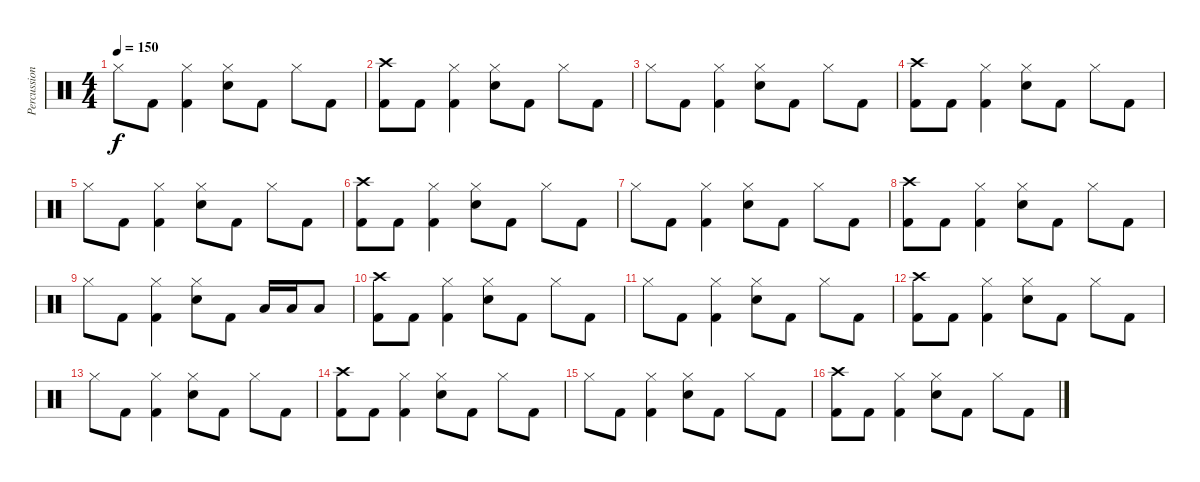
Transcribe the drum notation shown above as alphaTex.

\track ("Percussion" "Percussion") {instrument percussion}
\staff {score}
\articulation defaults
\ts (4 4)
\tempo 150
\clef neutral
\ks c "Hi-Hat (closed)".8{dy f} "Kick (hit) 2".8
("Hi-Hat (closed)" "Kick (hit) 2").4 ("Hi-Hat (closed)" "Electric Snare (hit)").8 "Kick (hit) 2".8 "Hi-Hat (closed)".8 "Kick (hit) 2".8 |
("Crash high (hit)" "Kick (hit) 2").8 "Kick (hit) 2".8 ("Hi-Hat (closed)" "Kick (hit) 2").4 ("Hi-Hat (closed)" "Electric Snare (hit)").8 "Kick (hit) 2".8 "Hi-Hat (closed)".8 "Kick (hit) 2".8 |
"Hi-Hat (closed)".8 "Kick (hit) 2".8 ("Hi-Hat (closed)" "Kick (hit) 2").4 ("Hi-Hat (closed)" "Electric Snare (hit)").8 "Kick (hit) 2".8 "Hi-Hat (closed)".8 "Kick (hit) 2".8 |
("Crash high (hit)" "Kick (hit) 2").8 "Kick (hit) 2".8 ("Hi-Hat (closed)" "Kick (hit) 2").4 ("Hi-Hat (closed)" "Electric Snare (hit)").8 "Kick (hit) 2".8 "Hi-Hat (closed)".8 "Kick (hit) 2".8 |
"Hi-Hat (closed)".8 "Kick (hit) 2".8 ("Hi-Hat (closed)" "Kick (hit) 2").4 ("Hi-Hat (closed)" "Electric Snare (hit)").8 "Kick (hit) 2".8 "Hi-Hat (closed)".8 "Kick (hit) 2".8 |
("Crash high (hit)" "Kick (hit) 2").8 "Kick (hit) 2".8 ("Hi-Hat (closed)" "Kick (hit) 2").4 ("Hi-Hat (closed)" "Electric Snare (hit)").8 "Kick (hit) 2".8 "Hi-Hat (closed)".8 "Kick (hit) 2".8 |
"Hi-Hat (closed)".8 "Kick (hit) 2".8 ("Hi-Hat (closed)" "Kick (hit) 2").4 ("Hi-Hat (closed)" "Electric Snare (hit)").8 "Kick (hit) 2".8 "Hi-Hat (closed)".8 "Kick (hit) 2".8 |
("Crash high (hit)" "Kick (hit) 2").8 "Kick (hit) 2".8 ("Hi-Hat (closed)" "Kick (hit) 2").4 ("Hi-Hat (closed)" "Electric Snare (hit)").8 "Kick (hit) 2".8 "Hi-Hat (closed)".8 "Kick (hit) 2".8 |
"Hi-Hat (closed)".8 "Kick (hit) 2".8 ("Hi-Hat (closed)" "Kick (hit) 2").4 ("Hi-Hat (closed)" "Electric Snare (hit)").8 "Kick (hit) 2".8 "Low Tom (hit)".16 "Low Tom (hit)".16 "Low Tom (hit)".8 |
("Crash high (hit)" "Kick (hit) 2").8 "Kick (hit) 2".8 ("Hi-Hat (closed)" "Kick (hit) 2").4 ("Hi-Hat (closed)" "Electric Snare (hit)").8 "Kick (hit) 2".8 "Hi-Hat (closed)".8 "Kick (hit) 2".8 |
"Hi-Hat (closed)".8 "Kick (hit) 2".8 ("Hi-Hat (closed)" "Kick (hit) 2").4 ("Hi-Hat (closed)" "Electric Snare (hit)").8 "Kick (hit) 2".8 "Hi-Hat (closed)".8 "Kick (hit) 2".8 |
("Crash high (hit)" "Kick (hit) 2").8 "Kick (hit) 2".8 ("Hi-Hat (closed)" "Kick (hit) 2").4 ("Hi-Hat (closed)" "Electric Snare (hit)").8 "Kick (hit) 2".8 "Hi-Hat (closed)".8 "Kick (hit) 2".8 |
"Hi-Hat (closed)".8 "Kick (hit) 2".8 ("Hi-Hat (closed)" "Kick (hit) 2").4 ("Hi-Hat (closed)" "Electric Snare (hit)").8 "Kick (hit) 2".8 "Hi-Hat (closed)".8 "Kick (hit) 2".8 |
("Crash high (hit)" "Kick (hit) 2").8 "Kick (hit) 2".8 ("Hi-Hat (closed)" "Kick (hit) 2").4 ("Hi-Hat (closed)" "Electric Snare (hit)").8 "Kick (hit) 2".8 "Hi-Hat (closed)".8 "Kick (hit) 2".8 |
"Hi-Hat (closed)".8 "Kick (hit) 2".8 ("Hi-Hat (closed)" "Kick (hit) 2").4 ("Hi-Hat (closed)" "Electric Snare (hit)").8 "Kick (hit) 2".8 "Hi-Hat (closed)".8 "Kick (hit) 2".8 |
("Crash high (hit)" "Kick (hit) 2").8 "Kick (hit) 2".8 ("Hi-Hat (closed)" "Kick (hit) 2").4 ("Hi-Hat (closed)" "Electric Snare (hit)").8 "Kick (hit) 2".8 "Hi-Hat (closed)".8 "Kick (hit) 2".8
